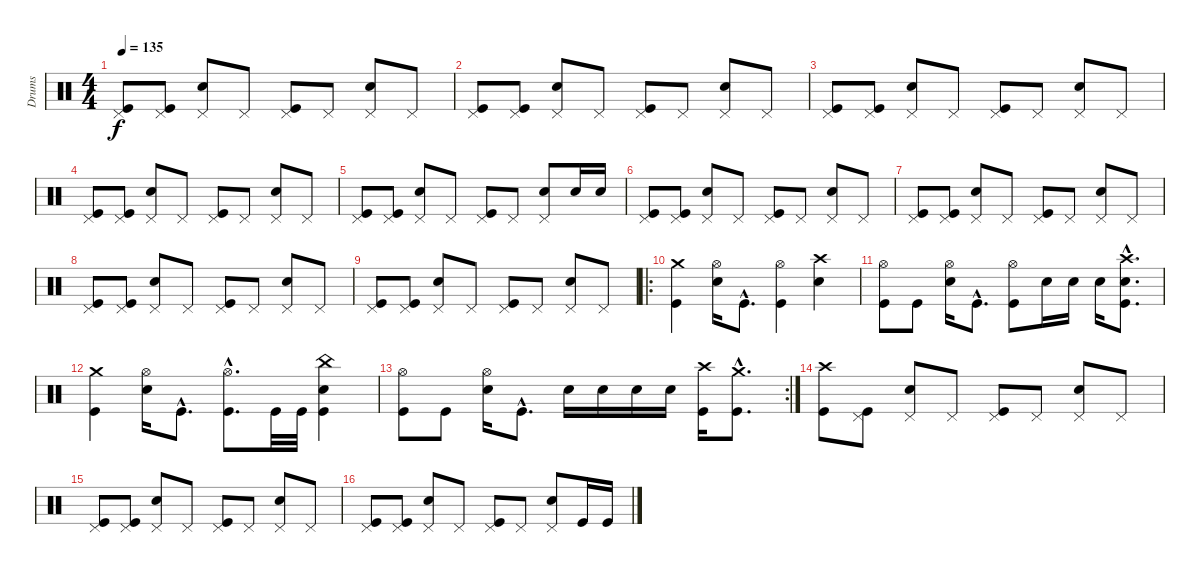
\track ("Drums" "Drums") {instrument percussion}
\staff {score}
\articulation defaults
\ts (4 4)
\tempo 135
\clef neutral
\ks c
("Pedal Hi-Hat (hit)" "Kick (hit)").8{dy f} ("Pedal Hi-Hat (hit)" "Kick (hit)").8 ("Pedal Hi-Hat (hit)" "Snare (hit) 2").8 "Pedal Hi-Hat (hit)".8 ("Pedal Hi-Hat (hit)" "Kick (hit)").8 "Pedal Hi-Hat (hit)".8 ("Pedal Hi-Hat (hit)" "Snare (hit) 2").8 "Pedal Hi-Hat (hit)".8 |
("Pedal Hi-Hat (hit)" "Kick (hit)").8 ("Pedal Hi-Hat (hit)" "Kick (hit)").8 ("Pedal Hi-Hat (hit)" "Snare (hit) 2").8 "Pedal Hi-Hat (hit)".8 ("Pedal Hi-Hat (hit)" "Kick (hit)").8 "Pedal Hi-Hat (hit)".8 ("Pedal Hi-Hat (hit)" "Snare (hit) 2").8 "Pedal Hi-Hat (hit)".8 |
("Pedal Hi-Hat (hit)" "Kick (hit)").8 ("Pedal Hi-Hat (hit)" "Kick (hit)").8 ("Pedal Hi-Hat (hit)" "Snare (hit) 2").8 "Pedal Hi-Hat (hit)".8 ("Pedal Hi-Hat (hit)" "Kick (hit)").8 "Pedal Hi-Hat (hit)".8 ("Pedal Hi-Hat (hit)" "Snare (hit) 2").8 "Pedal Hi-Hat (hit)".8 |
("Pedal Hi-Hat (hit)" "Kick (hit)").8 ("Pedal Hi-Hat (hit)" "Kick (hit)").8 ("Pedal Hi-Hat (hit)" "Snare (hit) 2").8 "Pedal Hi-Hat (hit)".8 ("Pedal Hi-Hat (hit)" "Kick (hit)").8 "Pedal Hi-Hat (hit)".8 ("Pedal Hi-Hat (hit)" "Snare (hit) 2").8 "Pedal Hi-Hat (hit)".8 |
("Pedal Hi-Hat (hit)" "Kick (hit)").8 ("Pedal Hi-Hat (hit)" "Kick (hit)").8 ("Pedal Hi-Hat (hit)" "Snare (hit) 2").8 "Pedal Hi-Hat (hit)".8 ("Pedal Hi-Hat (hit)" "Kick (hit)").8 "Pedal Hi-Hat (hit)".8 ("Pedal Hi-Hat (hit)" "Snare (hit) 2").8 "Snare (hit) 2".16 "Snare (hit) 2".16 |
("Pedal Hi-Hat (hit)" "Kick (hit)").8 ("Pedal Hi-Hat (hit)" "Kick (hit)").8 ("Pedal Hi-Hat (hit)" "Snare (hit) 2").8 "Pedal Hi-Hat (hit)".8 ("Pedal Hi-Hat (hit)" "Kick (hit)").8 "Pedal Hi-Hat (hit)".8 ("Pedal Hi-Hat (hit)" "Snare (hit) 2").8 "Pedal Hi-Hat (hit)".8 |
("Pedal Hi-Hat (hit)" "Kick (hit)").8 ("Pedal Hi-Hat (hit)" "Kick (hit)").8 ("Pedal Hi-Hat (hit)" "Snare (hit) 2").8 "Pedal Hi-Hat (hit)".8 ("Pedal Hi-Hat (hit)" "Kick (hit)").8 "Pedal Hi-Hat (hit)".8 ("Pedal Hi-Hat (hit)" "Snare (hit) 2").8 "Pedal Hi-Hat (hit)".8 |
("Pedal Hi-Hat (hit)" "Kick (hit)").8 ("Pedal Hi-Hat (hit)" "Kick (hit)").8 ("Pedal Hi-Hat (hit)" "Snare (hit) 2").8 "Pedal Hi-Hat (hit)".8 ("Pedal Hi-Hat (hit)" "Kick (hit)").8 "Pedal Hi-Hat (hit)".8 ("Pedal Hi-Hat (hit)" "Snare (hit) 2").8 "Pedal Hi-Hat (hit)".8 |
("Pedal Hi-Hat (hit)" "Kick (hit)").8 ("Pedal Hi-Hat (hit)" "Kick (hit)").8 ("Pedal Hi-Hat (hit)" "Snare (hit) 2").8 "Pedal Hi-Hat (hit)".8 ("Pedal Hi-Hat (hit)" "Kick (hit)").8 "Pedal Hi-Hat (hit)".8 ("Pedal Hi-Hat (hit)" "Snare (hit) 2").8 "Pedal Hi-Hat (hit)".8 |
\ro
("Crash medium (hit)" "Kick (hit)").4 ("Hi-Hat (open)" "Snare (hit) 2").16 "Kick (hit)"{hac}.8{d} ("Hi-Hat (open)" "Kick (hit)").4 ("Crash high (hit)" "Snare (hit) 2").4 |
("Hi-Hat (open)" "Kick (hit)").8 "Kick (hit)".8 ("Hi-Hat (open)" "Snare (hit) 2").16 "Kick (hit)"{hac}.8{d} ("Hi-Hat (open)" "Kick (hit)").8 "Snare (hit) 2".16 "Snare (hit) 2".16 "Snare (hit) 2".16 ("Crash high (hit)"{hac} "Snare (hit) 2"{hac} "Kick (hit)"{hac}).8{d} |
("Crash medium (hit)" "Kick (hit)").4 ("Hi-Hat (open)" "Snare (hit) 2").16 "Kick (hit)"{hac}.8{d} ("Hi-Hat (open)"{hac} "Kick (hit)"{hac}).8{d} "Kick (hit)".32 "Kick (hit)".32 ("China (hit)" "Snare (hit) 2" "Kick (hit)").4 |
\rc 2
("Hi-Hat (open)" "Kick (hit)").8 "Kick (hit)".8 ("Hi-Hat (open)" "Snare (hit) 2").16 "Kick (hit)"{hac}.8{d} "Snare (hit) 2".16 "Snare (hit) 2".16 "Snare (hit) 2".16 "Snare (hit) 2".16 ("Crash high (hit)" "Kick (hit)").16 ("Crash medium (hit)"{hac} "Kick (hit)"{hac}).8{d} |
("Crash high (hit)" "Kick (hit)").8 ("Pedal Hi-Hat (hit)" "Kick (hit)").8 ("Pedal Hi-Hat (hit)" "Snare (hit) 2").8 "Pedal Hi-Hat (hit)".8 ("Pedal Hi-Hat (hit)" "Kick (hit)").8 "Pedal Hi-Hat (hit)".8 ("Pedal Hi-Hat (hit)" "Snare (hit) 2").8 "Pedal Hi-Hat (hit)".8 |
("Pedal Hi-Hat (hit)" "Kick (hit)").8 ("Pedal Hi-Hat (hit)" "Kick (hit)").8 ("Pedal Hi-Hat (hit)" "Snare (hit) 2").8 "Pedal Hi-Hat (hit)".8 ("Pedal Hi-Hat (hit)" "Kick (hit)").8 "Pedal Hi-Hat (hit)".8 ("Pedal Hi-Hat (hit)" "Snare (hit) 2").8 "Pedal Hi-Hat (hit)".8 |
("Pedal Hi-Hat (hit)" "Kick (hit)").8 ("Pedal Hi-Hat (hit)" "Kick (hit)").8 ("Pedal Hi-Hat (hit)" "Snare (hit) 2").8 "Pedal Hi-Hat (hit)".8 ("Pedal Hi-Hat (hit)" "Kick (hit)").8 "Pedal Hi-Hat (hit)".8 ("Pedal Hi-Hat (hit)" "Snare (hit) 2").8 "Kick (hit)".16 "Kick (hit)".16
